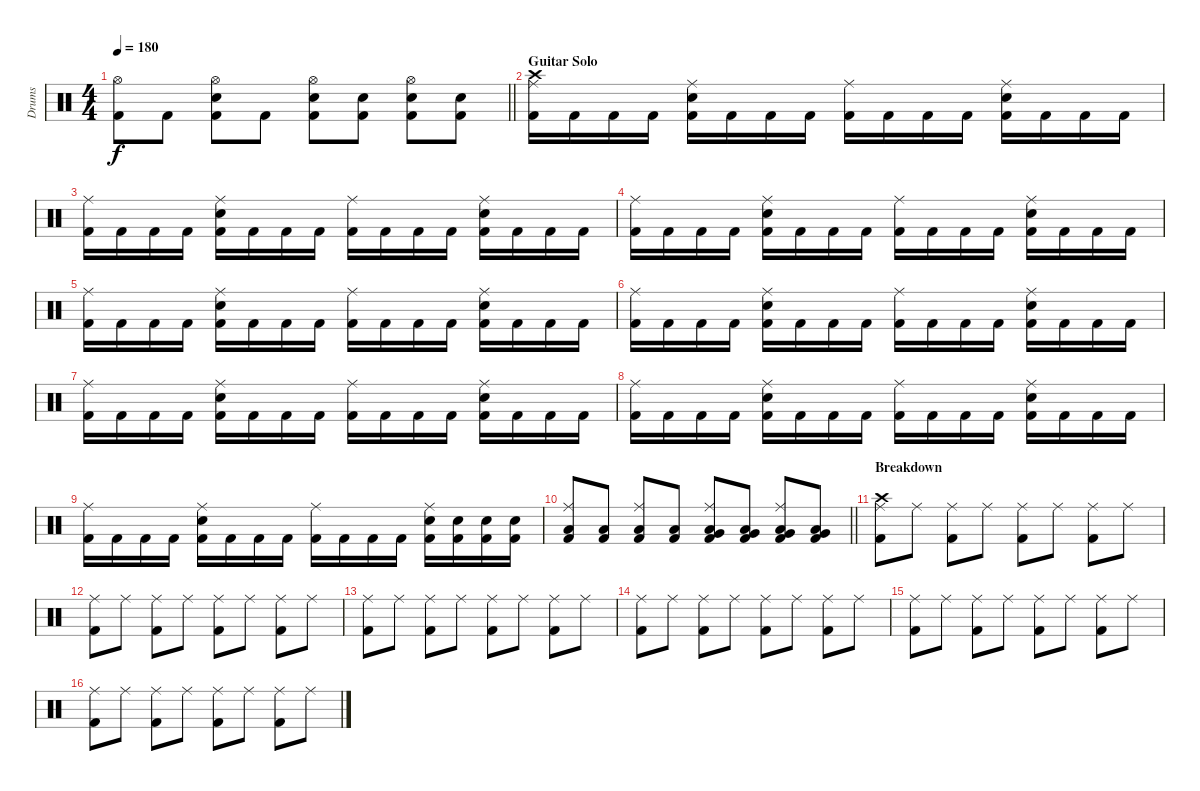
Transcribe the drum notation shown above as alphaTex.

\track ("Drums" "Drums") {instrument percussion}
\staff {score}
\articulation defaults
\ts (4 4)
\tempo 180
\clef neutral
\barLineRight lightlight
\ks c
("Hi-Hat (open)" "Kick (hit) 2").8{dy f} "Kick (hit) 2".8 ("Hi-Hat (open)" "Snare (hit) 2" "Kick (hit) 2").8 "Kick (hit) 2".8 ("Hi-Hat (open)" "Snare (hit) 2" "Kick (hit) 2").8 ("Snare (hit) 2" "Kick (hit) 2").8 ("Hi-Hat (open)" "Snare (hit) 2" "Kick (hit) 2").8 ("Snare (hit) 2" "Kick (hit) 2").8 |
\section ("" "Guitar Solo")
("Crash high (hit)" "Ride (middle)" "Kick (hit) 2").16 "Kick (hit) 2".16 "Kick (hit) 2".16 "Kick (hit) 2".16 ("Ride (middle)" "Snare (hit) 2" "Kick (hit) 2").16 "Kick (hit) 2".16 "Kick (hit) 2".16 "Kick (hit) 2".16 ("Ride (middle)" "Kick (hit) 2").16 "Kick (hit) 2".16 "Kick (hit) 2".16 "Kick (hit) 2".16 ("Ride (middle)" "Snare (hit) 2" "Kick (hit) 2").16 "Kick (hit) 2".16 "Kick (hit) 2".16 "Kick (hit) 2".16 |
("Ride (middle)" "Kick (hit) 2").16 "Kick (hit) 2".16 "Kick (hit) 2".16 "Kick (hit) 2".16 ("Ride (middle)" "Snare (hit) 2" "Kick (hit) 2").16 "Kick (hit) 2".16 "Kick (hit) 2".16 "Kick (hit) 2".16 ("Ride (middle)" "Kick (hit) 2").16 "Kick (hit) 2".16 "Kick (hit) 2".16 "Kick (hit) 2".16 ("Ride (middle)" "Snare (hit) 2" "Kick (hit) 2").16 "Kick (hit) 2".16 "Kick (hit) 2".16 "Kick (hit) 2".16 |
("Ride (middle)" "Kick (hit) 2").16 "Kick (hit) 2".16 "Kick (hit) 2".16 "Kick (hit) 2".16 ("Ride (middle)" "Snare (hit) 2" "Kick (hit) 2").16 "Kick (hit) 2".16 "Kick (hit) 2".16 "Kick (hit) 2".16 ("Ride (middle)" "Kick (hit) 2").16 "Kick (hit) 2".16 "Kick (hit) 2".16 "Kick (hit) 2".16 ("Ride (middle)" "Snare (hit) 2" "Kick (hit) 2").16 "Kick (hit) 2".16 "Kick (hit) 2".16 "Kick (hit) 2".16 |
("Ride (middle)" "Kick (hit) 2").16 "Kick (hit) 2".16 "Kick (hit) 2".16 "Kick (hit) 2".16 ("Ride (middle)" "Snare (hit) 2" "Kick (hit) 2").16 "Kick (hit) 2".16 "Kick (hit) 2".16 "Kick (hit) 2".16 ("Ride (middle)" "Kick (hit) 2").16 "Kick (hit) 2".16 "Kick (hit) 2".16 "Kick (hit) 2".16 ("Ride (middle)" "Snare (hit) 2" "Kick (hit) 2").16 "Kick (hit) 2".16 "Kick (hit) 2".16 "Kick (hit) 2".16 |
("Ride (middle)" "Kick (hit) 2").16 "Kick (hit) 2".16 "Kick (hit) 2".16 "Kick (hit) 2".16 ("Ride (middle)" "Snare (hit) 2" "Kick (hit) 2").16 "Kick (hit) 2".16 "Kick (hit) 2".16 "Kick (hit) 2".16 ("Ride (middle)" "Kick (hit) 2").16 "Kick (hit) 2".16 "Kick (hit) 2".16 "Kick (hit) 2".16 ("Ride (middle)" "Snare (hit) 2" "Kick (hit) 2").16 "Kick (hit) 2".16 "Kick (hit) 2".16 "Kick (hit) 2".16 |
("Ride (middle)" "Kick (hit) 2").16 "Kick (hit) 2".16 "Kick (hit) 2".16 "Kick (hit) 2".16 ("Ride (middle)" "Snare (hit) 2" "Kick (hit) 2").16 "Kick (hit) 2".16 "Kick (hit) 2".16 "Kick (hit) 2".16 ("Ride (middle)" "Kick (hit) 2").16 "Kick (hit) 2".16 "Kick (hit) 2".16 "Kick (hit) 2".16 ("Ride (middle)" "Snare (hit) 2" "Kick (hit) 2").16 "Kick (hit) 2".16 "Kick (hit) 2".16 "Kick (hit) 2".16 |
("Ride (middle)" "Kick (hit) 2").16 "Kick (hit) 2".16 "Kick (hit) 2".16 "Kick (hit) 2".16 ("Ride (middle)" "Snare (hit) 2" "Kick (hit) 2").16 "Kick (hit) 2".16 "Kick (hit) 2".16 "Kick (hit) 2".16 ("Ride (middle)" "Kick (hit) 2").16 "Kick (hit) 2".16 "Kick (hit) 2".16 "Kick (hit) 2".16 ("Ride (middle)" "Snare (hit) 2" "Kick (hit) 2").16 "Kick (hit) 2".16 "Kick (hit) 2".16 "Kick (hit) 2".16 |
("Ride (middle)" "Kick (hit) 2").16 "Kick (hit) 2".16 "Kick (hit) 2".16 "Kick (hit) 2".16 ("Ride (middle)" "Snare (hit) 2" "Kick (hit) 2").16 "Kick (hit) 2".16 "Kick (hit) 2".16 "Kick (hit) 2".16 ("Ride (middle)" "Kick (hit) 2").16 "Kick (hit) 2".16 "Kick (hit) 2".16 "Kick (hit) 2".16 ("Ride (middle)" "Snare (hit) 2" "Kick (hit) 2").16 ("Snare (hit) 2" "Kick (hit) 2").16 ("Snare (hit) 2" "Kick (hit) 2").16 ("Snare (hit) 2" "Kick (hit) 2").16 |
\barLineRight lightlight
("Ride (middle)" "Low Floor Tom (hit)" "Kick (hit) 2").8 ("Low Floor Tom (hit)" "Kick (hit) 2").8 ("Ride (middle)" "Low Floor Tom (hit)" "Kick (hit) 2").8 ("Low Floor Tom (hit)" "Kick (hit) 2").8 ("Ride (middle)" "Very Low Tom (hit)" "Low Floor Tom (hit)" "Kick (hit) 2").8 ("Very Low Tom (hit)" "Low Floor Tom (hit)" "Kick (hit) 2").8 ("Ride (middle)" "Very Low Tom (hit)" "Low Floor Tom (hit)" "Kick (hit) 2").8 ("Very Low Tom (hit)" "Low Floor Tom (hit)" "Kick (hit) 2").8 |
\section ("" "Breakdown")
("Crash high (hit)" "Ride (middle)" "Kick (hit) 2").8 "Ride (middle)".8 ("Ride (middle)" "Kick (hit) 2").8 "Ride (middle)".8 ("Ride (middle)" "Kick (hit) 2").8 "Ride (middle)".8 ("Ride (middle)" "Kick (hit) 2").8 "Ride (middle)".8 |
("Ride (middle)" "Kick (hit) 2").8 "Ride (middle)".8 ("Ride (middle)" "Kick (hit) 2").8 "Ride (middle)".8 ("Ride (middle)" "Kick (hit) 2").8 "Ride (middle)".8 ("Ride (middle)" "Kick (hit) 2").8 "Ride (middle)".8 |
("Ride (middle)" "Kick (hit) 2").8 "Ride (middle)".8 ("Ride (middle)" "Kick (hit) 2").8 "Ride (middle)".8 ("Ride (middle)" "Kick (hit) 2").8 "Ride (middle)".8 ("Ride (middle)" "Kick (hit) 2").8 "Ride (middle)".8 |
("Ride (middle)" "Kick (hit) 2").8 "Ride (middle)".8 ("Ride (middle)" "Kick (hit) 2").8 "Ride (middle)".8 ("Ride (middle)" "Kick (hit) 2").8 "Ride (middle)".8 ("Ride (middle)" "Kick (hit) 2").8 "Ride (middle)".8 |
("Ride (middle)" "Kick (hit) 2").8 "Ride (middle)".8 ("Ride (middle)" "Kick (hit) 2").8 "Ride (middle)".8 ("Ride (middle)" "Kick (hit) 2").8 "Ride (middle)".8 ("Ride (middle)" "Kick (hit) 2").8 "Ride (middle)".8 |
("Ride (middle)" "Kick (hit) 2").8 "Ride (middle)".8 ("Ride (middle)" "Kick (hit) 2").8 "Ride (middle)".8 ("Ride (middle)" "Kick (hit) 2").8 "Ride (middle)".8 ("Ride (middle)" "Kick (hit) 2").8 "Ride (middle)".8
